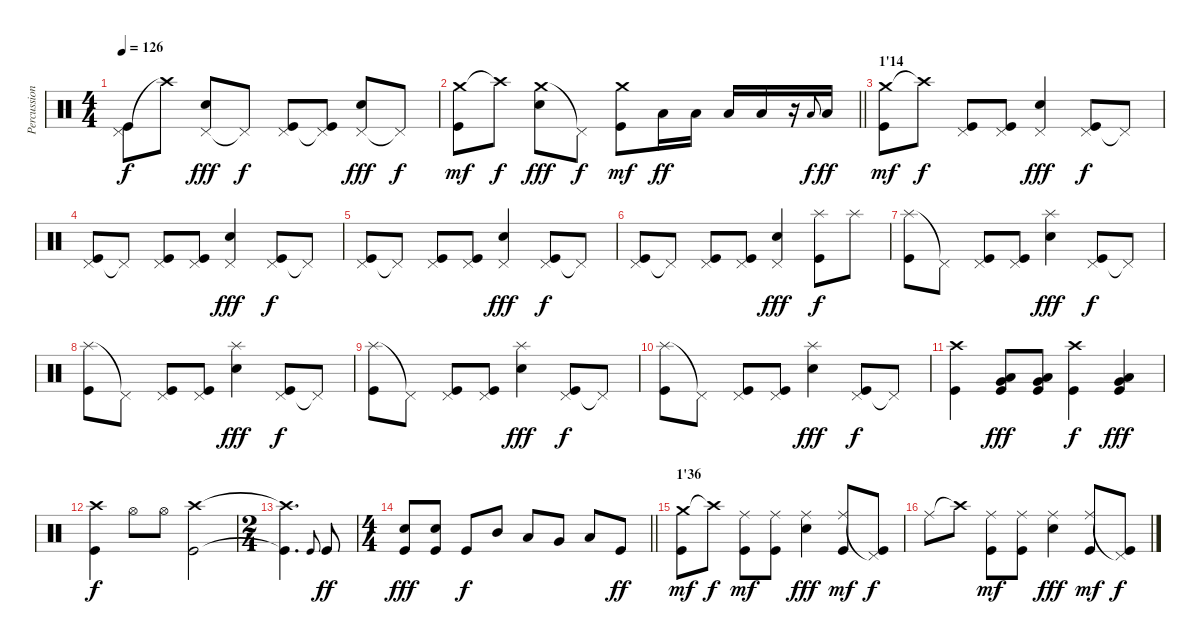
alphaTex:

\track ("Percussions" "Percussion") {instrument percussion}
\staff {score}
\articulation defaults
\ts (4 4)
\tempo 126
\clef neutral
\ks c
("Pedal Hi-Hat (hit)" "Kick (hit)").8{dy f} "Crash high (hit)"{t}.8 ("Pedal Hi-Hat (hit)" "Snare (hit) 2").8{dy fff} "Pedal Hi-Hat (hit)"{t}.8{dy f} ("Pedal Hi-Hat (hit)" "Kick (hit)").8 ("Pedal Hi-Hat (hit)"{t} "Kick (hit)").8 ("Pedal Hi-Hat (hit)" "Snare (hit) 2").8{dy fff} "Pedal Hi-Hat (hit)"{t}.8{dy f} |
\barLineRight lightlight
("Crash medium (hit)" "Kick (hit)").8{dy mf} "Crash high (hit)"{t}.8{dy f} ("Crash medium (hit)" "Snare (hit) 2").8{dy fff} "Pedal Hi-Hat (hit)"{t}.8{dy f} ("Crash medium (hit)" "Kick (hit)").8{dy mf} "Low Floor Tom (hit)".16{dy ff} "Low Floor Tom (hit)".16 "Low Floor Tom (hit)".16{beam merge} "Low Floor Tom (hit)".16 r.16 "Low Floor Tom (hit)".8{gr onbeat dy f} "Low Floor Tom (hit)".16{dy ff} |
\section ("" "1'14")
("Crash medium (hit)" "Kick (hit)").8{dy mf} "Crash high (hit)"{t}.8{dy f} ("Pedal Hi-Hat (hit)" "Kick (hit)").8 ("Pedal Hi-Hat (hit)" "Kick (hit)").8 ("Pedal Hi-Hat (hit)" "Snare (hit) 2").4{dy fff} ("Pedal Hi-Hat (hit)" "Kick (hit)").8{dy f} "Pedal Hi-Hat (hit)"{t}.8 |
("Pedal Hi-Hat (hit)" "Kick (hit)").8 "Pedal Hi-Hat (hit)"{t}.8 ("Pedal Hi-Hat (hit)" "Kick (hit)").8 ("Pedal Hi-Hat (hit)" "Kick (hit)").8 ("Pedal Hi-Hat (hit)" "Snare (hit) 2").4{dy fff} ("Pedal Hi-Hat (hit)" "Kick (hit)").8{dy f} "Pedal Hi-Hat (hit)"{t}.8 |
("Pedal Hi-Hat (hit)" "Kick (hit)").8 "Pedal Hi-Hat (hit)"{t}.8 ("Pedal Hi-Hat (hit)" "Kick (hit)").8 ("Pedal Hi-Hat (hit)" "Kick (hit)").8 ("Pedal Hi-Hat (hit)" "Snare (hit) 2").4{dy fff} ("Pedal Hi-Hat (hit)" "Kick (hit)").8{dy f} "Pedal Hi-Hat (hit)"{t}.8 |
("Pedal Hi-Hat (hit)" "Kick (hit)").8 "Pedal Hi-Hat (hit)"{t}.8 ("Pedal Hi-Hat (hit)" "Kick (hit)").8 ("Pedal Hi-Hat (hit)" "Kick (hit)").8 ("Pedal Hi-Hat (hit)" "Snare (hit) 2").4{dy fff} ("Splash (hit)" "Kick (hit)").8{dy f} "Splash (hit)".8 |
("Splash (hit)" "Kick (hit)").8 "Pedal Hi-Hat (hit)"{t}.8 ("Pedal Hi-Hat (hit)" "Kick (hit)").8 ("Pedal Hi-Hat (hit)" "Kick (hit)").8 ("Splash (hit)" "Snare (hit) 2").4{dy fff} ("Pedal Hi-Hat (hit)" "Kick (hit)").8{dy f} "Pedal Hi-Hat (hit)"{t}.8 |
("Splash (hit)" "Kick (hit)").8 "Pedal Hi-Hat (hit)"{t}.8 ("Pedal Hi-Hat (hit)" "Kick (hit)").8 ("Pedal Hi-Hat (hit)" "Kick (hit)").8 ("Splash (hit)" "Snare (hit) 2").4{dy fff} ("Pedal Hi-Hat (hit)" "Kick (hit)").8{dy f} "Pedal Hi-Hat (hit)"{t}.8 |
("Splash (hit)" "Kick (hit)").8 "Pedal Hi-Hat (hit)"{t}.8 ("Pedal Hi-Hat (hit)" "Kick (hit)").8 ("Pedal Hi-Hat (hit)" "Kick (hit)").8 ("Splash (hit)" "Snare (hit) 2").4{dy fff} ("Pedal Hi-Hat (hit)" "Kick (hit)").8{dy f} "Pedal Hi-Hat (hit)"{t}.8 |
("Splash (hit)" "Kick (hit)").8 "Pedal Hi-Hat (hit)"{t}.8 ("Pedal Hi-Hat (hit)" "Kick (hit)").8 ("Pedal Hi-Hat (hit)" "Kick (hit)").8 ("Splash (hit)" "Snare (hit) 2").4{dy fff} ("Pedal Hi-Hat (hit)" "Kick (hit)").8{dy f} "Pedal Hi-Hat (hit)"{t}.8 |
("Crash high (hit)" "Kick (hit)").4 ("Very Low Tom (hit)" "Low Floor Tom (hit)" "Kick (hit)").8{dy fff} ("Very Low Tom (hit)" "Low Floor Tom (hit)" "Kick (hit)").8 ("Crash high (hit)" "Kick (hit)").4{dy f} ("Very Low Tom (hit)" "Low Floor Tom (hit)" "Kick (hit)").4{dy fff} |
("Crash high (hit)" "Kick (hit)").4{dy f} "Hi-Hat (open)".8 "Hi-Hat (open)".8 ("Crash high (hit)" "Kick (hit)").2 |
\ts (2 4)
("Crash high (hit)"{t} "Kick (hit)"{t}).4{d} "Kick (hit)".8{gr onbeat} "Kick (hit)".8{dy ff} |
\ts (4 4)
\barLineRight lightlight
("Snare (hit) 2" "Kick (hit)").8{dy fff} ("Snare (hit) 2" "Kick (hit)").8 "Kick (hit)".8{dy f} "Mid Tom (hit)".8 "Low Tom (hit)".8 "Very Low Tom (hit)".8 "Low Floor Tom (hit)".8 "Kick (hit)".8{dy ff} |
\section ("" "1'36")
("Crash medium (hit)" "Kick (hit)").8{dy mf} "Crash high (hit)"{t}.8{dy f} ("Ride (middle)" "Kick (hit)").8{dy mf} ("Ride (middle)" "Kick (hit)").8 ("Ride (middle)" "Snare (hit) 2").4{dy fff} ("Ride (middle)" "Kick (hit)").8{dy mf} ("Pedal Hi-Hat (hit)"{t} "Kick (hit)").8{dy f} |
"Ride (middle)".8 "Crash high (hit)"{t}.8 ("Ride (middle)" "Kick (hit)").8{dy mf} ("Ride (middle)" "Kick (hit)").8 ("Ride (middle)" "Snare (hit) 2").4{dy fff} ("Ride (middle)" "Kick (hit)").8{dy mf} ("Pedal Hi-Hat (hit)"{t} "Kick (hit)").8{dy f}
